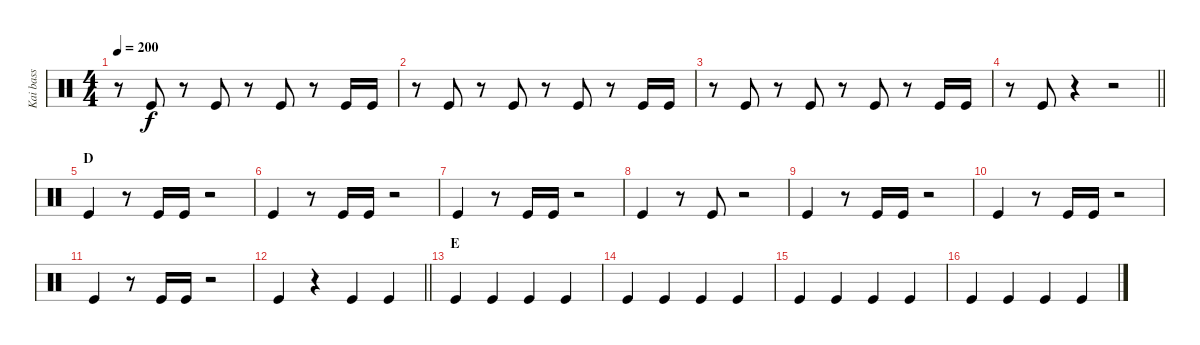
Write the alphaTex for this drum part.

\track ("Kai bass" "Kai bass") {instrument percussion}
\staff {score}
\articulation defaults
\ts (4 4)
\tempo 200
\clef neutral
\ks c
r.8{dy f} "Kick (hit)".8 r.8 "Kick (hit)".8 r.8 "Kick (hit)".8 r.8 "Kick (hit)".16 "Kick (hit)".16 |
r.8 "Kick (hit)".8 r.8 "Kick (hit)".8 r.8 "Kick (hit)".8 r.8 "Kick (hit)".16 "Kick (hit)".16 |
r.8 "Kick (hit)".8 r.8 "Kick (hit)".8 r.8 "Kick (hit)".8 r.8 "Kick (hit)".16 "Kick (hit)".16 |
\barLineRight lightlight
r.8 "Kick (hit)".8 r.4 r.2 |
\section ("" "D")
"Kick (hit)".4 r.8 "Kick (hit)".16 "Kick (hit)".16 r.2 |
"Kick (hit)".4 r.8 "Kick (hit)".16 "Kick (hit)".16 r.2 |
"Kick (hit)".4 r.8 "Kick (hit)".16 "Kick (hit)".16 r.2 |
"Kick (hit)".4 r.8 "Kick (hit)".8 r.2 |
"Kick (hit)".4 r.8 "Kick (hit)".16 "Kick (hit)".16 r.2 |
"Kick (hit)".4 r.8 "Kick (hit)".16 "Kick (hit)".16 r.2 |
"Kick (hit)".4 r.8 "Kick (hit)".16 "Kick (hit)".16 r.2 |
\barLineRight lightlight "Kick (hit)".4
r.4 "Kick (hit)".4 "Kick (hit)".4 |
\section ("" "E")
"Kick (hit)".4 "Kick (hit)".4 "Kick (hit)".4 "Kick (hit)".4 |
"Kick (hit)".4 "Kick (hit)".4 "Kick (hit)".4 "Kick (hit)".4 |
"Kick (hit)".4 "Kick (hit)".4 "Kick (hit)".4 "Kick (hit)".4 |
"Kick (hit)".4 "Kick (hit)".4 "Kick (hit)".4 "Kick (hit)".4
